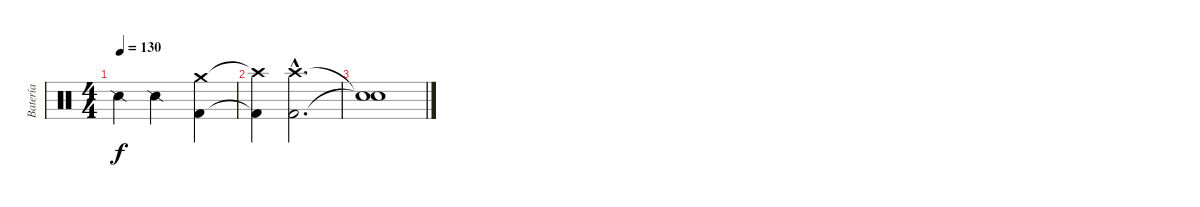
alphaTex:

\track ("Batería" "Batería") {instrument percussion}
\staff {score}
\articulation defaults
\ts (4 4)
\tempo 130
\clef neutral
\ks c "Snare (side stick) 2"{t}.4{dy f} "Snare (side stick) 2".2
("Crash medium (hit)" "Kick (hit) 2").4 |
("Crash high (hit)"{t} "Kick (hit) 2"{t}).4 ("Crash high (hit)"{hac} "Kick (hit) 2"{hac}).2{d} |
("Snare (hit)"{t} "Snare (hit)"{t}).1
